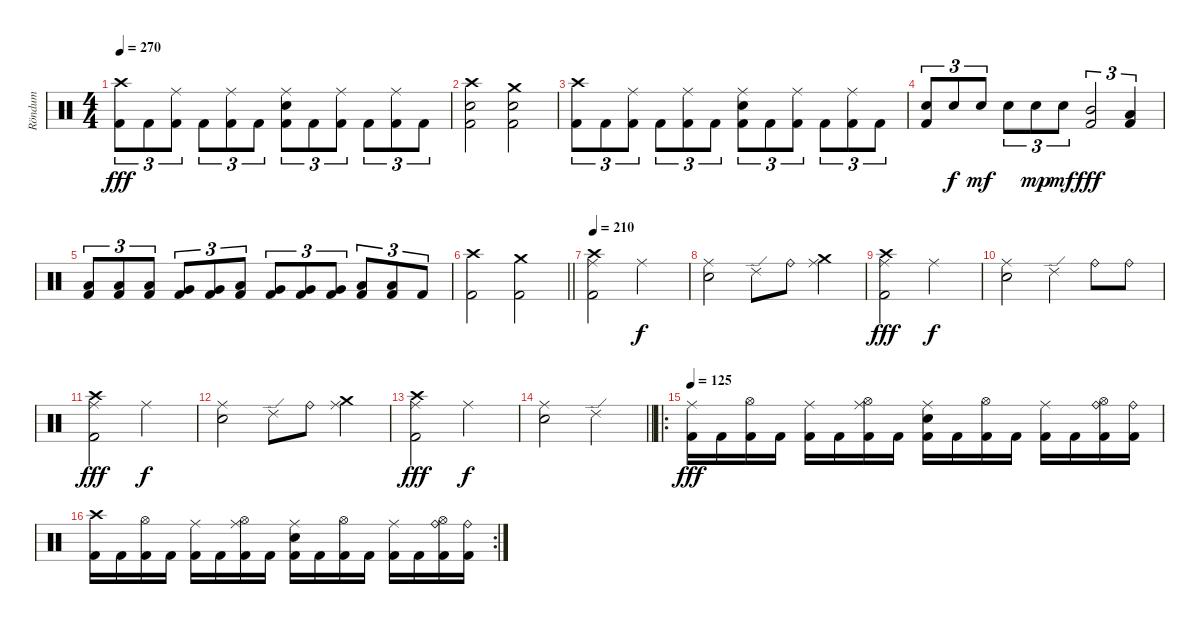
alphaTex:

\track ("Röndum" "Röndum") {instrument percussion}
\staff {score}
\articulation defaults
\ts (4 4)
\tempo 270
\clef neutral
\ks c
("Crash high (hit)" "Kick (hit) 2").8{tu (3 2) dy fff} "Kick (hit) 2".8{tu (3 2)} ("Ride (middle)" "Kick (hit) 2").8{tu (3 2)} "Kick (hit) 2".8{tu (3 2)} ("Ride (middle)" "Kick (hit) 2").8{tu (3 2)} "Kick (hit) 2".8{tu (3 2)} ("Ride (middle)" "Snare (hit) 2" "Kick (hit) 2").8{tu (3 2)} "Kick (hit) 2".8{tu (3 2)} ("Ride (middle)" "Kick (hit) 2").8{tu (3 2)} "Kick (hit) 2".8{tu (3 2)} ("Ride (middle)" "Kick (hit) 2").8{tu (3 2)} "Kick (hit) 2".8{tu (3 2)} |
("Crash high (hit)" "Snare (hit) 2" "Kick (hit) 2").2 ("Crash medium (hit)" "Snare (hit) 2" "Kick (hit) 2").2 |
("Crash high (hit)" "Kick (hit) 2").8{tu (3 2)} "Kick (hit) 2".8{tu (3 2)} ("Ride (middle)" "Kick (hit) 2").8{tu (3 2)} "Kick (hit) 2".8{tu (3 2)} ("Ride (middle)" "Kick (hit) 2").8{tu (3 2)} "Kick (hit) 2".8{tu (3 2)} ("Ride (middle)" "Snare (hit) 2" "Kick (hit) 2").8{tu (3 2)} "Kick (hit) 2".8{tu (3 2)} ("Ride (middle)" "Kick (hit) 2").8{tu (3 2)} "Kick (hit) 2".8{tu (3 2)} ("Ride (middle)" "Kick (hit) 2").8{tu (3 2)} "Kick (hit) 2".8{tu (3 2)} |
("Snare (hit) 2" "Kick (hit) 2").8{tu (3 2)} "Snare (hit) 2".8{tu (3 2) dy f} "Snare (hit) 2".8{tu (3 2) dy mf} "Snare (hit) 2".8{tu (3 2)} "Snare (hit) 2".8{tu (3 2) dy mp} "Snare (hit) 2".8{tu (3 2) dy mf} ("Mid Tom (hit)" "Kick (hit) 2").2{tu (3 2) dy fff} ("Low Tom (hit)" "Kick (hit) 2").4{tu (3 2)} |
("Low Tom (hit)" "Kick (hit) 2").8{tu (3 2)} ("Low Tom (hit)" "Kick (hit) 2").8{tu (3 2)} ("Low Tom (hit)" "Kick (hit) 2").8{tu (3 2)} ("Very Low Tom (hit)" "Kick (hit) 2").8{tu (3 2)} ("Very Low Tom (hit)" "Kick (hit) 2").8{tu (3 2)} ("Low Tom (hit)" "Kick (hit) 2").8{tu (3 2)} ("Very Low Tom (hit)" "Kick (hit) 2").8{tu (3 2)} ("Very Low Tom (hit)" "Kick (hit) 2").8{tu (3 2)} ("Very Low Tom (hit)" "Kick (hit) 2").8{tu (3 2)} ("Low Floor Tom (hit)" "Kick (hit) 2").8{tu (3 2)} ("Low Floor Tom (hit)" "Kick (hit) 2").8{tu (3 2)} "Kick (hit) 2".8{tu (3 2)} |
\barLineRight lightlight
("Crash high (hit)" "Kick (hit) 2").2 ("Crash medium (hit)" "Kick (hit) 2").2 |
\tempo 210
("Crash high (hit)" "Ride (middle)" "Kick (hit) 2").2 "Ride (middle)".2{dy f} |
("Ride (middle)" "Snare (hit) 2").2 "Ride (edge) 2".8 "Ride (bell)".8 ("Crash medium (hit)" "Ride (middle)").4 |
("Crash high (hit)" "Ride (middle)" "Kick (hit) 2").2{dy fff} "Ride (middle)".2{dy f} |
("Ride (middle)" "Snare (hit) 2").2 "Ride (edge) 2".4 "Ride (bell)".8 "Ride (bell)".8 |
("Crash high (hit)" "Ride (middle)" "Kick (hit) 2").2{dy fff} "Ride (middle)".2{dy f} |
("Ride (middle)" "Snare (hit) 2").2 "Ride (edge) 2".8 "Ride (bell)".8 ("Crash medium (hit)" "Ride (middle)").4 |
("Crash high (hit)" "Ride (middle)" "Kick (hit) 2").2{dy fff} "Ride (middle)".2{dy f} |
\barLineRight lightlight
("Ride (middle)" "Snare (hit) 2").2 "Ride (edge) 2".2 |
\ro
\tempo 125
("Ride (middle)" "Kick (hit) 2").16{dy fff} "Kick (hit) 2".16 ("Hi-Hat (open)" "Kick (hit) 2").16 "Kick (hit) 2".16 ("Ride (middle)" "Kick (hit) 2").16 "Kick (hit) 2".16 ("Ride (middle)" "Hi-Hat (open)" "Kick (hit) 2").16 "Kick (hit) 2".16 ("Ride (middle)" "Snare (hit) 2" "Kick (hit) 2").16 "Kick (hit) 2".16 ("Hi-Hat (open)" "Kick (hit) 2").16 "Kick (hit) 2".16 ("Ride (middle)" "Kick (hit) 2").16 "Kick (hit) 2".16 ("Ride (bell)" "Hi-Hat (open)" "Kick (hit) 2").16 ("Ride (bell)" "Kick (hit) 2").16 |
\rc 2
("Crash high (hit)" "Kick (hit) 2").16 "Kick (hit) 2".16 ("Hi-Hat (open)" "Kick (hit) 2").16 "Kick (hit) 2".16 ("Ride (middle)" "Kick (hit) 2").16 "Kick (hit) 2".16 ("Ride (middle)" "Hi-Hat (open)" "Kick (hit) 2").16 "Kick (hit) 2".16 ("Ride (middle)" "Snare (hit) 2" "Kick (hit) 2").16 "Kick (hit) 2".16 ("Hi-Hat (open)" "Kick (hit) 2").16 "Kick (hit) 2".16 ("Ride (middle)" "Kick (hit) 2").16 "Kick (hit) 2".16 ("Ride (bell)" "Hi-Hat (open)" "Kick (hit) 2").16 ("Ride (bell)" "Kick (hit) 2").16
